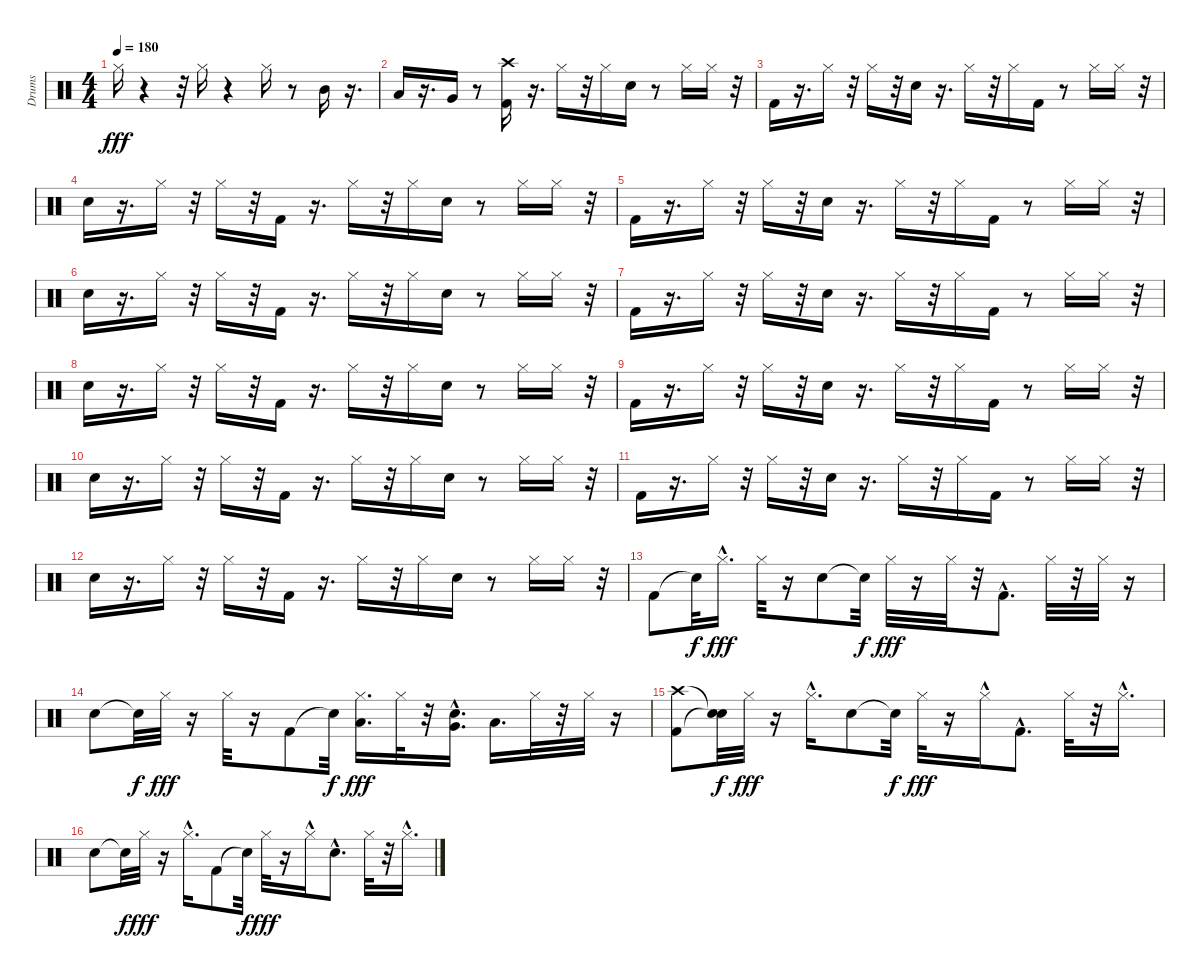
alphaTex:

\track ("Drums" "Drums") {instrument percussion}
\staff {score}
\articulation defaults
\ts (4 4)
\tempo 180
\clef neutral
\ks c "Hi-Hat (closed)".16{dy fff}
r.4 r.32 "Hi-Hat (closed)".16 r.4 "Hi-Hat (closed)".16 r.8 "Mid Tom (hit)".16 r.16{d} |
"Low Tom (hit)".16 r.16{d} "Very Low Tom (hit)".16 r.8 ("Kick (hit) 2" "Crash high (hit)").16 r.16{d} "Hi-Hat (closed)".16 r.32 "Hi-Hat (closed)".16 "Snare (hit) 2".16 r.8 "Hi-Hat (closed)".16 "Hi-Hat (closed)".16 r.32 |
"Kick (hit) 2".16 r.16{d} "Hi-Hat (closed)".16 r.32 "Hi-Hat (closed)".16 r.32 "Snare (hit) 2".16 r.16{d} "Hi-Hat (closed)".16 r.32 "Hi-Hat (closed)".16 "Kick (hit) 2".16 r.8 "Hi-Hat (closed)".16 "Hi-Hat (closed)".16 r.32 |
"Snare (hit) 2".16 r.16{d} "Hi-Hat (closed)".16 r.32 "Hi-Hat (closed)".16 r.32 "Kick (hit) 2".16 r.16{d} "Hi-Hat (closed)".16 r.32 "Hi-Hat (closed)".16 "Snare (hit) 2".16 r.8 "Hi-Hat (closed)".16 "Hi-Hat (closed)".16 r.32 |
"Kick (hit) 2".16 r.16{d} "Hi-Hat (closed)".16 r.32 "Hi-Hat (closed)".16 r.32 "Snare (hit) 2".16 r.16{d} "Hi-Hat (closed)".16 r.32 "Hi-Hat (closed)".16 "Kick (hit) 2".16 r.8 "Hi-Hat (closed)".16 "Hi-Hat (closed)".16 r.32 |
"Snare (hit) 2".16 r.16{d} "Hi-Hat (closed)".16 r.32 "Hi-Hat (closed)".16 r.32 "Kick (hit) 2".16 r.16{d} "Hi-Hat (closed)".16 r.32 "Hi-Hat (closed)".16 "Snare (hit) 2".16 r.8 "Hi-Hat (closed)".16 "Hi-Hat (closed)".16 r.32 |
"Kick (hit) 2".16 r.16{d} "Hi-Hat (closed)".16 r.32 "Hi-Hat (closed)".16 r.32 "Snare (hit) 2".16 r.16{d} "Hi-Hat (closed)".16 r.32 "Hi-Hat (closed)".16 "Kick (hit) 2".16 r.8 "Hi-Hat (closed)".16 "Hi-Hat (closed)".16 r.32 |
"Snare (hit) 2".16 r.16{d} "Hi-Hat (closed)".16 r.32 "Hi-Hat (closed)".16 r.32 "Kick (hit) 2".16 r.16{d} "Hi-Hat (closed)".16 r.32 "Hi-Hat (closed)".16 "Snare (hit) 2".16 r.8 "Hi-Hat (closed)".16 "Hi-Hat (closed)".16 r.32 |
"Kick (hit) 2".16 r.16{d} "Hi-Hat (closed)".16 r.32 "Hi-Hat (closed)".16 r.32 "Snare (hit) 2".16 r.16{d} "Hi-Hat (closed)".16 r.32 "Hi-Hat (closed)".16 "Kick (hit) 2".16 r.8 "Hi-Hat (closed)".16 "Hi-Hat (closed)".16 r.32 |
"Snare (hit) 2".16 r.16{d} "Hi-Hat (closed)".16 r.32 "Hi-Hat (closed)".16 r.32 "Kick (hit) 2".16 r.16{d} "Hi-Hat (closed)".16 r.32 "Hi-Hat (closed)".16 "Snare (hit) 2".16 r.8 "Hi-Hat (closed)".16 "Hi-Hat (closed)".16 r.32 |
"Kick (hit) 2".16 r.16{d} "Hi-Hat (closed)".16 r.32 "Hi-Hat (closed)".16 r.32 "Snare (hit) 2".16 r.16{d} "Hi-Hat (closed)".16 r.32 "Hi-Hat (closed)".16 "Kick (hit) 2".16 r.8 "Hi-Hat (closed)".16 "Hi-Hat (closed)".16 r.32 |
"Snare (hit) 2".16 r.16{d} "Hi-Hat (closed)".16 r.32 "Hi-Hat (closed)".16 r.32 "Kick (hit) 2".16 r.16{d} "Hi-Hat (closed)".16 r.32 "Hi-Hat (closed)".16 "Snare (hit) 2".16 r.8 "Hi-Hat (closed)".16 "Hi-Hat (closed)".16 r.32 |
"Kick (hit) 2".8 "Snare (hit)"{t}.32{dy f} "Hi-Hat (closed)"{hac}.16{d dy fff} "Hi-Hat (closed)".32 r.16 "Snare (hit) 2".8 "Snare (hit)"{t}.32{dy f} "Hi-Hat (closed)".32{dy fff} r.16 "Hi-Hat (closed)".32 r.32 "Kick (hit) 2"{hac}.8{d} "Hi-Hat (closed)".32 r.32 "Hi-Hat (closed)".32 r.16 |
"Snare (hit) 2".8 "Snare (hit)"{t}.32{dy f} "Hi-Hat (closed)".32{dy fff} r.16 "Hi-Hat (closed)".32 r.16 "Kick (hit) 2".8 "Snare (hit)"{t}.32{dy f} ("Hi-Hat (closed)" "Low Tom (hit)").16{d dy fff} "Hi-Hat (closed)".32 r.32 ("Snare (hit) 2"{hac} "Very Low Tom (hit)").16{d} "Low Floor Tom (hit)".16{d} "Hi-Hat (closed)".32 r.32 "Hi-Hat (closed)".32 r.16 |
("Kick (hit) 2" "Crash high (hit)").8 ("Snare (hit)"{t} "Snare (hit)"{t}).32{dy f} "Hi-Hat (closed)".32{dy fff} r.16 "Hi-Hat (closed)"{hac}.16{d} "Snare (hit) 2".8 "Snare (hit)"{t}.32{dy f} "Hi-Hat (closed)".32{dy fff} r.16 "Hi-Hat (closed)"{hac}.16 "Kick (hit) 2"{hac}.8{d} "Hi-Hat (closed)".32 r.32 "Hi-Hat (closed)"{hac}.16{d} |
"Snare (hit) 2".8 "Snare (hit)"{t}.32{dy f} "Hi-Hat (closed)".32{dy fff} r.16 "Hi-Hat (closed)"{hac}.16{d} "Kick (hit) 2".8 "Snare (hit)"{t}.32{dy f} "Hi-Hat (closed)".32{dy fff} r.16 "Hi-Hat (closed)"{hac}.16 "Snare (hit) 2"{hac}.8{d} "Hi-Hat (closed)".32 r.32 "Hi-Hat (closed)"{hac}.16{d}
